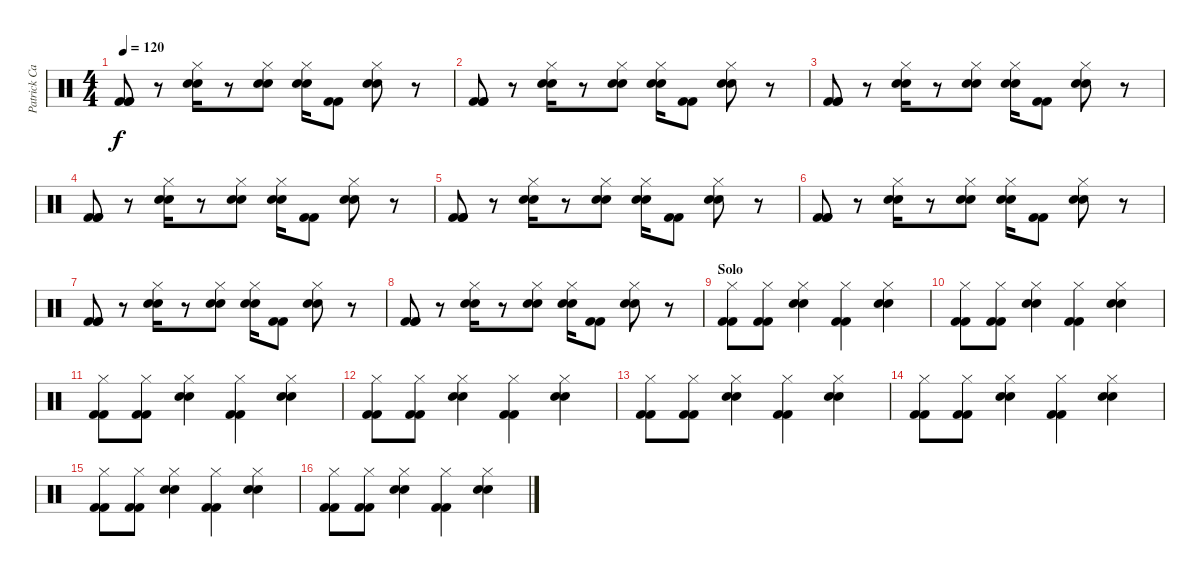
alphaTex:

\track ("Patrick Carney (Drums)" "Patrick Ca") {instrument percussion}
\staff {score}
\articulation defaults
\ts (4 4)
\tempo 120
\clef neutral
\ks c
("Kick (hit) 2" "Kick (hit) 2" "Kick (hit) 2").8{dy f} r.8 ("Electric Snare (hit)" "Snare (hit) 2" "Hi-Hat (closed)").16 r.8 ("Electric Snare (hit)" "Snare (hit) 2" "Hi-Hat (closed)").8 ("Electric Snare (hit)" "Snare (hit) 2" "Hi-Hat (closed)").16 ("Kick (hit) 2" "Kick (hit) 2").8 ("Electric Snare (hit)" "Snare (hit) 2" "Hi-Hat (closed)").8 r.8 |
("Kick (hit) 2" "Kick (hit) 2" "Kick (hit) 2").8 r.8 ("Electric Snare (hit)" "Snare (hit) 2" "Hi-Hat (closed)").16 r.8 ("Electric Snare (hit)" "Snare (hit) 2" "Hi-Hat (closed)").8 ("Electric Snare (hit)" "Snare (hit) 2" "Hi-Hat (closed)").16 ("Kick (hit) 2" "Kick (hit) 2").8 ("Electric Snare (hit)" "Snare (hit) 2" "Hi-Hat (closed)").8 r.8 |
("Kick (hit) 2" "Kick (hit) 2" "Kick (hit) 2").8 r.8 ("Electric Snare (hit)" "Snare (hit) 2" "Hi-Hat (closed)").16 r.8 ("Electric Snare (hit)" "Snare (hit) 2" "Hi-Hat (closed)").8 ("Electric Snare (hit)" "Snare (hit) 2" "Hi-Hat (closed)").16 ("Kick (hit) 2" "Kick (hit) 2").8 ("Electric Snare (hit)" "Snare (hit) 2" "Hi-Hat (closed)").8 r.8 |
("Kick (hit) 2" "Kick (hit) 2" "Kick (hit) 2").8 r.8 ("Electric Snare (hit)" "Snare (hit) 2" "Hi-Hat (closed)").16 r.8 ("Electric Snare (hit)" "Snare (hit) 2" "Hi-Hat (closed)").8 ("Electric Snare (hit)" "Snare (hit) 2" "Hi-Hat (closed)").16 ("Kick (hit) 2" "Kick (hit) 2").8 ("Electric Snare (hit)" "Snare (hit) 2" "Hi-Hat (closed)").8 r.8 |
("Kick (hit) 2" "Kick (hit) 2" "Kick (hit) 2").8 r.8 ("Electric Snare (hit)" "Snare (hit) 2" "Hi-Hat (closed)").16 r.8 ("Electric Snare (hit)" "Snare (hit) 2" "Hi-Hat (closed)").8 ("Electric Snare (hit)" "Snare (hit) 2" "Hi-Hat (closed)").16 ("Kick (hit) 2" "Kick (hit) 2").8 ("Electric Snare (hit)" "Snare (hit) 2" "Hi-Hat (closed)").8 r.8 |
("Kick (hit) 2" "Kick (hit) 2" "Kick (hit) 2").8 r.8 ("Electric Snare (hit)" "Snare (hit) 2" "Hi-Hat (closed)").16 r.8 ("Electric Snare (hit)" "Snare (hit) 2" "Hi-Hat (closed)").8 ("Electric Snare (hit)" "Snare (hit) 2" "Hi-Hat (closed)").16 ("Kick (hit) 2" "Kick (hit) 2").8 ("Electric Snare (hit)" "Snare (hit) 2" "Hi-Hat (closed)").8 r.8 |
("Kick (hit) 2" "Kick (hit) 2" "Kick (hit) 2").8 r.8 ("Electric Snare (hit)" "Snare (hit) 2" "Hi-Hat (closed)").16 r.8 ("Electric Snare (hit)" "Snare (hit) 2" "Hi-Hat (closed)").8 ("Electric Snare (hit)" "Snare (hit) 2" "Hi-Hat (closed)").16 ("Kick (hit) 2" "Kick (hit) 2").8 ("Electric Snare (hit)" "Snare (hit) 2" "Hi-Hat (closed)").8 r.8 |
("Kick (hit) 2" "Kick (hit) 2" "Kick (hit) 2").8 r.8 ("Electric Snare (hit)" "Snare (hit) 2" "Hi-Hat (closed)").16 r.8 ("Electric Snare (hit)" "Snare (hit) 2" "Hi-Hat (closed)").8 ("Electric Snare (hit)" "Snare (hit) 2" "Hi-Hat (closed)").16 ("Kick (hit) 2" "Kick (hit) 2").8 ("Electric Snare (hit)" "Snare (hit) 2" "Hi-Hat (closed)").8 r.8 |
\section ("" "Solo")
("Kick (hit) 2" "Kick (hit) 2" "Hi-Hat (closed)").8 ("Kick (hit) 2" "Kick (hit) 2" "Hi-Hat (closed)").8 ("Electric Snare (hit)" "Snare (hit) 2" "Hi-Hat (closed)").4 ("Kick (hit) 2" "Kick (hit) 2" "Hi-Hat (closed)").4 ("Electric Snare (hit)" "Snare (hit) 2" "Hi-Hat (closed)").4 |
("Kick (hit) 2" "Kick (hit) 2" "Hi-Hat (closed)").8 ("Kick (hit) 2" "Kick (hit) 2" "Hi-Hat (closed)").8 ("Electric Snare (hit)" "Snare (hit) 2" "Hi-Hat (closed)").4 ("Kick (hit) 2" "Kick (hit) 2" "Hi-Hat (closed)").4 ("Electric Snare (hit)" "Snare (hit) 2" "Hi-Hat (closed)").4 |
("Kick (hit) 2" "Kick (hit) 2" "Hi-Hat (closed)").8 ("Kick (hit) 2" "Kick (hit) 2" "Hi-Hat (closed)").8 ("Electric Snare (hit)" "Snare (hit) 2" "Hi-Hat (closed)").4 ("Kick (hit) 2" "Kick (hit) 2" "Hi-Hat (closed)").4 ("Electric Snare (hit)" "Snare (hit) 2" "Hi-Hat (closed)").4 |
("Kick (hit) 2" "Kick (hit) 2" "Hi-Hat (closed)").8 ("Kick (hit) 2" "Kick (hit) 2" "Hi-Hat (closed)").8 ("Electric Snare (hit)" "Snare (hit) 2" "Hi-Hat (closed)").4 ("Kick (hit) 2" "Kick (hit) 2" "Hi-Hat (closed)").4 ("Electric Snare (hit)" "Snare (hit) 2" "Hi-Hat (closed)").4 |
("Kick (hit) 2" "Kick (hit) 2" "Hi-Hat (closed)").8 ("Kick (hit) 2" "Kick (hit) 2" "Hi-Hat (closed)").8 ("Electric Snare (hit)" "Snare (hit) 2" "Hi-Hat (closed)").4 ("Kick (hit) 2" "Kick (hit) 2" "Hi-Hat (closed)").4 ("Electric Snare (hit)" "Snare (hit) 2" "Hi-Hat (closed)").4 |
("Kick (hit) 2" "Kick (hit) 2" "Hi-Hat (closed)").8 ("Kick (hit) 2" "Kick (hit) 2" "Hi-Hat (closed)").8 ("Electric Snare (hit)" "Snare (hit) 2" "Hi-Hat (closed)").4 ("Kick (hit) 2" "Kick (hit) 2" "Hi-Hat (closed)").4 ("Electric Snare (hit)" "Snare (hit) 2" "Hi-Hat (closed)").4 |
("Kick (hit) 2" "Kick (hit) 2" "Hi-Hat (closed)").8 ("Kick (hit) 2" "Kick (hit) 2" "Hi-Hat (closed)").8 ("Electric Snare (hit)" "Snare (hit) 2" "Hi-Hat (closed)").4 ("Kick (hit) 2" "Kick (hit) 2" "Hi-Hat (closed)").4 ("Electric Snare (hit)" "Snare (hit) 2" "Hi-Hat (closed)").4 |
("Kick (hit) 2" "Kick (hit) 2" "Hi-Hat (closed)").8 ("Kick (hit) 2" "Kick (hit) 2" "Hi-Hat (closed)").8 ("Electric Snare (hit)" "Snare (hit) 2" "Hi-Hat (closed)").4 ("Kick (hit) 2" "Kick (hit) 2" "Hi-Hat (closed)").4 ("Electric Snare (hit)" "Snare (hit) 2" "Hi-Hat (closed)").4
